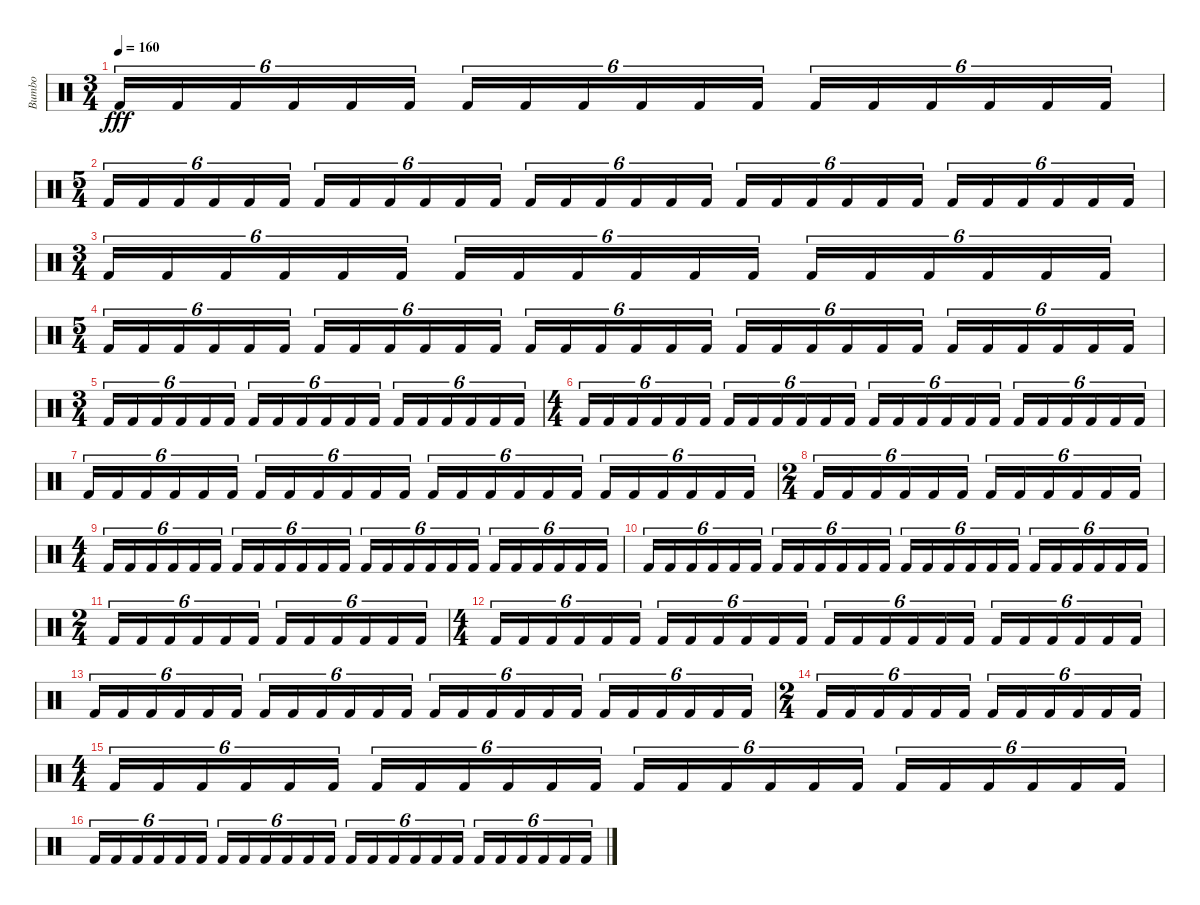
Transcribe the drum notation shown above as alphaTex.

\track ("Bumbo" "Bumbo") {instrument percussion}
\staff {score}
\articulation defaults
\ts (3 4)
\tempo 160
\clef neutral
\ks c "Kick (hit) 2".16{tu (6 4) dy fff} "Kick (hit) 2".16{tu (6 4)} "Kick (hit) 2".16{tu (6 4)} "Kick (hit) 2".16{tu (6 4)} "Kick (hit) 2".16{tu (6 4)} "Kick (hit) 2".16{tu (6 4)} "Kick (hit) 2".16{tu (6 4)} "Kick (hit) 2".16{tu (6 4)} "Kick (hit) 2".16{tu (6 4)} "Kick (hit) 2".16{tu (6 4)} "Kick (hit) 2".16{tu (6 4)} "Kick (hit) 2".16{tu (6 4)} "Kick (hit) 2".16{tu (6 4)} "Kick (hit) 2".16{tu (6 4)} "Kick (hit) 2".16{tu (6 4)} "Kick (hit) 2".16{tu (6 4)} "Kick (hit) 2".16{tu (6 4)} "Kick (hit) 2".16{tu (6 4)}
|
\ts (5 4)
"Kick (hit) 2".16{tu (6 4)} "Kick (hit) 2".16{tu (6 4)} "Kick (hit) 2".16{tu (6 4)} "Kick (hit) 2".16{tu (6 4)} "Kick (hit) 2".16{tu (6 4)} "Kick (hit) 2".16{tu (6 4)} "Kick (hit) 2".16{tu (6 4)} "Kick (hit) 2".16{tu (6 4)} "Kick (hit) 2".16{tu (6 4)} "Kick (hit) 2".16{tu (6 4)} "Kick (hit) 2".16{tu (6 4)} "Kick (hit) 2".16{tu (6 4)} "Kick (hit) 2".16{tu (6 4)} "Kick (hit) 2".16{tu (6 4)} "Kick (hit) 2".16{tu (6 4)} "Kick (hit) 2".16{tu (6 4)} "Kick (hit) 2".16{tu (6 4)} "Kick (hit) 2".16{tu (6 4)} "Kick (hit) 2".16{tu (6 4)} "Kick (hit) 2".16{tu (6 4)} "Kick (hit) 2".16{tu (6 4)} "Kick (hit) 2".16{tu (6 4)} "Kick (hit) 2".16{tu (6 4)} "Kick (hit) 2".16{tu (6 4)} "Kick (hit) 2".16{tu (6 4)} "Kick (hit) 2".16{tu (6 4)} "Kick (hit) 2".16{tu (6 4)} "Kick (hit) 2".16{tu (6 4)} "Kick (hit) 2".16{tu (6 4)} "Kick (hit) 2".16{tu (6 4)} |
\ts (3 4)
"Kick (hit) 2".16{tu (6 4)} "Kick (hit) 2".16{tu (6 4)} "Kick (hit) 2".16{tu (6 4)} "Kick (hit) 2".16{tu (6 4)} "Kick (hit) 2".16{tu (6 4)} "Kick (hit) 2".16{tu (6 4)} "Kick (hit) 2".16{tu (6 4)} "Kick (hit) 2".16{tu (6 4)} "Kick (hit) 2".16{tu (6 4)} "Kick (hit) 2".16{tu (6 4)} "Kick (hit) 2".16{tu (6 4)} "Kick (hit) 2".16{tu (6 4)} "Kick (hit) 2".16{tu (6 4)} "Kick (hit) 2".16{tu (6 4)} "Kick (hit) 2".16{tu (6 4)} "Kick (hit) 2".16{tu (6 4)} "Kick (hit) 2".16{tu (6 4)} "Kick (hit) 2".16{tu (6 4)} |
\ts (5 4)
"Kick (hit) 2".16{tu (6 4)} "Kick (hit) 2".16{tu (6 4)} "Kick (hit) 2".16{tu (6 4)} "Kick (hit) 2".16{tu (6 4)} "Kick (hit) 2".16{tu (6 4)} "Kick (hit) 2".16{tu (6 4)} "Kick (hit) 2".16{tu (6 4)} "Kick (hit) 2".16{tu (6 4)} "Kick (hit) 2".16{tu (6 4)} "Kick (hit) 2".16{tu (6 4)} "Kick (hit) 2".16{tu (6 4)} "Kick (hit) 2".16{tu (6 4)} "Kick (hit) 2".16{tu (6 4)} "Kick (hit) 2".16{tu (6 4)} "Kick (hit) 2".16{tu (6 4)} "Kick (hit) 2".16{tu (6 4)} "Kick (hit) 2".16{tu (6 4)} "Kick (hit) 2".16{tu (6 4)} "Kick (hit) 2".16{tu (6 4)} "Kick (hit) 2".16{tu (6 4)} "Kick (hit) 2".16{tu (6 4)} "Kick (hit) 2".16{tu (6 4)} "Kick (hit) 2".16{tu (6 4)} "Kick (hit) 2".16{tu (6 4)} "Kick (hit) 2".16{tu (6 4)} "Kick (hit) 2".16{tu (6 4)} "Kick (hit) 2".16{tu (6 4)} "Kick (hit) 2".16{tu (6 4)} "Kick (hit) 2".16{tu (6 4)} "Kick (hit) 2".16{tu (6 4)} |
\ts (3 4)
"Kick (hit) 2".16{tu (6 4)} "Kick (hit) 2".16{tu (6 4)} "Kick (hit) 2".16{tu (6 4)} "Kick (hit) 2".16{tu (6 4)} "Kick (hit) 2".16{tu (6 4)} "Kick (hit) 2".16{tu (6 4)} "Kick (hit) 2".16{tu (6 4)} "Kick (hit) 2".16{tu (6 4)} "Kick (hit) 2".16{tu (6 4)} "Kick (hit) 2".16{tu (6 4)} "Kick (hit) 2".16{tu (6 4)} "Kick (hit) 2".16{tu (6 4)} "Kick (hit) 2".16{tu (6 4)} "Kick (hit) 2".16{tu (6 4)} "Kick (hit) 2".16{tu (6 4)} "Kick (hit) 2".16{tu (6 4)} "Kick (hit) 2".16{tu (6 4)} "Kick (hit) 2".16{tu (6 4)} |
\ts (4 4)
"Kick (hit) 2".16{tu (6 4)} "Kick (hit) 2".16{tu (6 4)} "Kick (hit) 2".16{tu (6 4)} "Kick (hit) 2".16{tu (6 4)} "Kick (hit) 2".16{tu (6 4)} "Kick (hit) 2".16{tu (6 4)} "Kick (hit) 2".16{tu (6 4)} "Kick (hit) 2".16{tu (6 4)} "Kick (hit) 2".16{tu (6 4)} "Kick (hit) 2".16{tu (6 4)} "Kick (hit) 2".16{tu (6 4)} "Kick (hit) 2".16{tu (6 4)} "Kick (hit) 2".16{tu (6 4)} "Kick (hit) 2".16{tu (6 4)} "Kick (hit) 2".16{tu (6 4)} "Kick (hit) 2".16{tu (6 4)} "Kick (hit) 2".16{tu (6 4)} "Kick (hit) 2".16{tu (6 4)} "Kick (hit) 2".16{tu (6 4)} "Kick (hit) 2".16{tu (6 4)} "Kick (hit) 2".16{tu (6 4)} "Kick (hit) 2".16{tu (6 4)} "Kick (hit) 2".16{tu (6 4)} "Kick (hit) 2".16{tu (6 4)} |
"Kick (hit) 2".16{tu (6 4)} "Kick (hit) 2".16{tu (6 4)} "Kick (hit) 2".16{tu (6 4)} "Kick (hit) 2".16{tu (6 4)} "Kick (hit) 2".16{tu (6 4)} "Kick (hit) 2".16{tu (6 4)} "Kick (hit) 2".16{tu (6 4)} "Kick (hit) 2".16{tu (6 4)} "Kick (hit) 2".16{tu (6 4)} "Kick (hit) 2".16{tu (6 4)} "Kick (hit) 2".16{tu (6 4)} "Kick (hit) 2".16{tu (6 4)} "Kick (hit) 2".16{tu (6 4)} "Kick (hit) 2".16{tu (6 4)} "Kick (hit) 2".16{tu (6 4)} "Kick (hit) 2".16{tu (6 4)} "Kick (hit) 2".16{tu (6 4)} "Kick (hit) 2".16{tu (6 4)} "Kick (hit) 2".16{tu (6 4)} "Kick (hit) 2".16{tu (6 4)} "Kick (hit) 2".16{tu (6 4)} "Kick (hit) 2".16{tu (6 4)} "Kick (hit) 2".16{tu (6 4)} "Kick (hit) 2".16{tu (6 4)} |
\ts (2 4)
"Kick (hit) 2".16{tu (6 4)} "Kick (hit) 2".16{tu (6 4)} "Kick (hit) 2".16{tu (6 4)} "Kick (hit) 2".16{tu (6 4)} "Kick (hit) 2".16{tu (6 4)} "Kick (hit) 2".16{tu (6 4)} "Kick (hit) 2".16{tu (6 4)} "Kick (hit) 2".16{tu (6 4)} "Kick (hit) 2".16{tu (6 4)} "Kick (hit) 2".16{tu (6 4)} "Kick (hit) 2".16{tu (6 4)} "Kick (hit) 2".16{tu (6 4)} |
\ts (4 4)
"Kick (hit) 2".16{tu (6 4)} "Kick (hit) 2".16{tu (6 4)} "Kick (hit) 2".16{tu (6 4)} "Kick (hit) 2".16{tu (6 4)} "Kick (hit) 2".16{tu (6 4)} "Kick (hit) 2".16{tu (6 4)} "Kick (hit) 2".16{tu (6 4)} "Kick (hit) 2".16{tu (6 4)} "Kick (hit) 2".16{tu (6 4)} "Kick (hit) 2".16{tu (6 4)} "Kick (hit) 2".16{tu (6 4)} "Kick (hit) 2".16{tu (6 4)} "Kick (hit) 2".16{tu (6 4)} "Kick (hit) 2".16{tu (6 4)} "Kick (hit) 2".16{tu (6 4)} "Kick (hit) 2".16{tu (6 4)} "Kick (hit) 2".16{tu (6 4)} "Kick (hit) 2".16{tu (6 4)} "Kick (hit) 2".16{tu (6 4)} "Kick (hit) 2".16{tu (6 4)} "Kick (hit) 2".16{tu (6 4)} "Kick (hit) 2".16{tu (6 4)} "Kick (hit) 2".16{tu (6 4)} "Kick (hit) 2".16{tu (6 4)} |
"Kick (hit) 2".16{tu (6 4)} "Kick (hit) 2".16{tu (6 4)} "Kick (hit) 2".16{tu (6 4)} "Kick (hit) 2".16{tu (6 4)} "Kick (hit) 2".16{tu (6 4)} "Kick (hit) 2".16{tu (6 4)} "Kick (hit) 2".16{tu (6 4)} "Kick (hit) 2".16{tu (6 4)} "Kick (hit) 2".16{tu (6 4)} "Kick (hit) 2".16{tu (6 4)} "Kick (hit) 2".16{tu (6 4)} "Kick (hit) 2".16{tu (6 4)} "Kick (hit) 2".16{tu (6 4)} "Kick (hit) 2".16{tu (6 4)} "Kick (hit) 2".16{tu (6 4)} "Kick (hit) 2".16{tu (6 4)} "Kick (hit) 2".16{tu (6 4)} "Kick (hit) 2".16{tu (6 4)} "Kick (hit) 2".16{tu (6 4)} "Kick (hit) 2".16{tu (6 4)} "Kick (hit) 2".16{tu (6 4)} "Kick (hit) 2".16{tu (6 4)} "Kick (hit) 2".16{tu (6 4)} "Kick (hit) 2".16{tu (6 4)} |
\ts (2 4)
"Kick (hit) 2".16{tu (6 4)} "Kick (hit) 2".16{tu (6 4)} "Kick (hit) 2".16{tu (6 4)} "Kick (hit) 2".16{tu (6 4)} "Kick (hit) 2".16{tu (6 4)} "Kick (hit) 2".16{tu (6 4)} "Kick (hit) 2".16{tu (6 4)} "Kick (hit) 2".16{tu (6 4)} "Kick (hit) 2".16{tu (6 4)} "Kick (hit) 2".16{tu (6 4)} "Kick (hit) 2".16{tu (6 4)} "Kick (hit) 2".16{tu (6 4)} |
\ts (4 4)
"Kick (hit) 2".16{tu (6 4)} "Kick (hit) 2".16{tu (6 4)} "Kick (hit) 2".16{tu (6 4)} "Kick (hit) 2".16{tu (6 4)} "Kick (hit) 2".16{tu (6 4)} "Kick (hit) 2".16{tu (6 4)} "Kick (hit) 2".16{tu (6 4)} "Kick (hit) 2".16{tu (6 4)} "Kick (hit) 2".16{tu (6 4)} "Kick (hit) 2".16{tu (6 4)} "Kick (hit) 2".16{tu (6 4)} "Kick (hit) 2".16{tu (6 4)} "Kick (hit) 2".16{tu (6 4)} "Kick (hit) 2".16{tu (6 4)} "Kick (hit) 2".16{tu (6 4)} "Kick (hit) 2".16{tu (6 4)} "Kick (hit) 2".16{tu (6 4)} "Kick (hit) 2".16{tu (6 4)} "Kick (hit) 2".16{tu (6 4)} "Kick (hit) 2".16{tu (6 4)} "Kick (hit) 2".16{tu (6 4)} "Kick (hit) 2".16{tu (6 4)} "Kick (hit) 2".16{tu (6 4)} "Kick (hit) 2".16{tu (6 4)} |
"Kick (hit) 2".16{tu (6 4)} "Kick (hit) 2".16{tu (6 4)} "Kick (hit) 2".16{tu (6 4)} "Kick (hit) 2".16{tu (6 4)} "Kick (hit) 2".16{tu (6 4)} "Kick (hit) 2".16{tu (6 4)} "Kick (hit) 2".16{tu (6 4)} "Kick (hit) 2".16{tu (6 4)} "Kick (hit) 2".16{tu (6 4)} "Kick (hit) 2".16{tu (6 4)} "Kick (hit) 2".16{tu (6 4)} "Kick (hit) 2".16{tu (6 4)} "Kick (hit) 2".16{tu (6 4)} "Kick (hit) 2".16{tu (6 4)} "Kick (hit) 2".16{tu (6 4)} "Kick (hit) 2".16{tu (6 4)} "Kick (hit) 2".16{tu (6 4)} "Kick (hit) 2".16{tu (6 4)} "Kick (hit) 2".16{tu (6 4)} "Kick (hit) 2".16{tu (6 4)} "Kick (hit) 2".16{tu (6 4)} "Kick (hit) 2".16{tu (6 4)} "Kick (hit) 2".16{tu (6 4)} "Kick (hit) 2".16{tu (6 4)} |
\ts (2 4)
"Kick (hit) 2".16{tu (6 4)} "Kick (hit) 2".16{tu (6 4)} "Kick (hit) 2".16{tu (6 4)} "Kick (hit) 2".16{tu (6 4)} "Kick (hit) 2".16{tu (6 4)} "Kick (hit) 2".16{tu (6 4)} "Kick (hit) 2".16{tu (6 4)} "Kick (hit) 2".16{tu (6 4)} "Kick (hit) 2".16{tu (6 4)} "Kick (hit) 2".16{tu (6 4)} "Kick (hit) 2".16{tu (6 4)} "Kick (hit) 2".16{tu (6 4)} |
\ts (4 4)
"Kick (hit) 2".16{tu (6 4)} "Kick (hit) 2".16{tu (6 4)} "Kick (hit) 2".16{tu (6 4)} "Kick (hit) 2".16{tu (6 4)} "Kick (hit) 2".16{tu (6 4)} "Kick (hit) 2".16{tu (6 4)} "Kick (hit) 2".16{tu (6 4)} "Kick (hit) 2".16{tu (6 4)} "Kick (hit) 2".16{tu (6 4)} "Kick (hit) 2".16{tu (6 4)} "Kick (hit) 2".16{tu (6 4)} "Kick (hit) 2".16{tu (6 4)} "Kick (hit) 2".16{tu (6 4)} "Kick (hit) 2".16{tu (6 4)} "Kick (hit) 2".16{tu (6 4)} "Kick (hit) 2".16{tu (6 4)} "Kick (hit) 2".16{tu (6 4)} "Kick (hit) 2".16{tu (6 4)} "Kick (hit) 2".16{tu (6 4)} "Kick (hit) 2".16{tu (6 4)} "Kick (hit) 2".16{tu (6 4)} "Kick (hit) 2".16{tu (6 4)} "Kick (hit) 2".16{tu (6 4)} "Kick (hit) 2".16{tu (6 4)} |
"Kick (hit) 2".16{tu (6 4)} "Kick (hit) 2".16{tu (6 4)} "Kick (hit) 2".16{tu (6 4)} "Kick (hit) 2".16{tu (6 4)} "Kick (hit) 2".16{tu (6 4)} "Kick (hit) 2".16{tu (6 4)} "Kick (hit) 2".16{tu (6 4)} "Kick (hit) 2".16{tu (6 4)} "Kick (hit) 2".16{tu (6 4)} "Kick (hit) 2".16{tu (6 4)} "Kick (hit) 2".16{tu (6 4)} "Kick (hit) 2".16{tu (6 4)} "Kick (hit) 2".16{tu (6 4)} "Kick (hit) 2".16{tu (6 4)} "Kick (hit) 2".16{tu (6 4)} "Kick (hit) 2".16{tu (6 4)} "Kick (hit) 2".16{tu (6 4)} "Kick (hit) 2".16{tu (6 4)} "Kick (hit) 2".16{tu (6 4)} "Kick (hit) 2".16{tu (6 4)} "Kick (hit) 2".16{tu (6 4)} "Kick (hit) 2".16{tu (6 4)} "Kick (hit) 2".16{tu (6 4)} "Kick (hit) 2".16{tu (6 4)}
